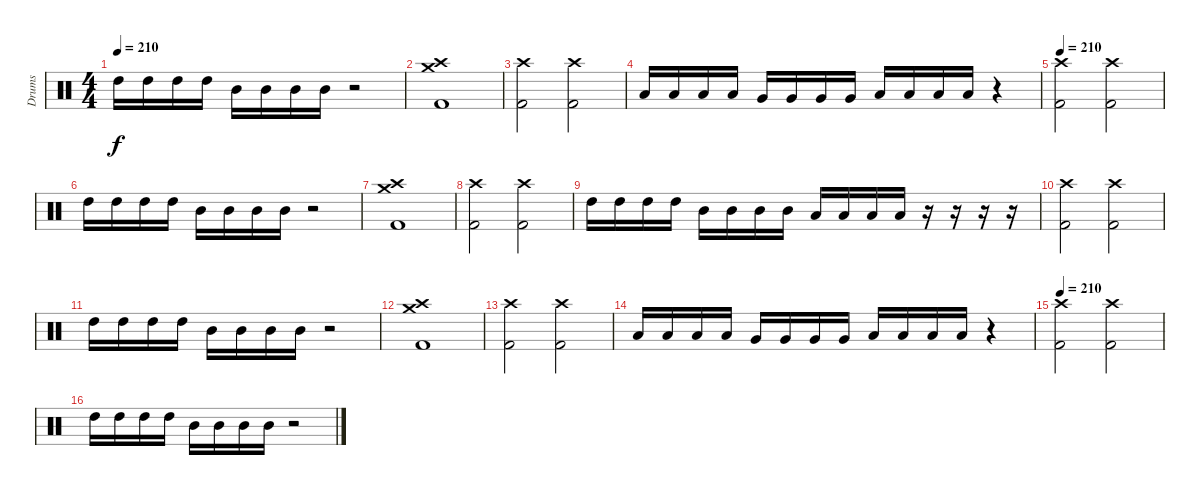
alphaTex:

\track ("Drums" "Drums") {instrument percussion}
\staff {score}
\articulation defaults
\ts (4 4)
\tempo 210
\clef neutral
\ks c "High Tom (hit)".16{dy f} "High Tom (hit)".16 "High Tom (hit)".16 "High Tom (hit)".16 "Mid Tom (hit)".16 "Mid Tom (hit)".16 "Mid Tom (hit)".16 "Mid Tom (hit)".16
r.2 |
("Crash high (hit)" "Crash medium (hit)" "Kick (hit) 2").1 |
("Crash high (hit)" "Kick (hit) 2").2 ("Crash high (hit)" "Kick (hit) 2").2 |
"Low Tom (hit)".16 "Low Tom (hit)".16 "Low Tom (hit)".16 "Low Tom (hit)".16 "Very Low Tom (hit)".16 "Very Low Tom (hit)".16 "Very Low Tom (hit)".16 "Very Low Tom (hit)".16 "Low Floor Tom (hit)".16 "Low Floor Tom (hit)".16 "Low Floor Tom (hit)".16 "Low Floor Tom (hit)".16 r.4 |
\tempo 210
("Crash high (hit)" "Kick (hit) 2").2 ("Crash high (hit)" "Kick (hit) 2").2 |
"High Tom (hit)".16 "High Tom (hit)".16 "High Tom (hit)".16 "High Tom (hit)".16 "Mid Tom (hit)".16 "Mid Tom (hit)".16 "Mid Tom (hit)".16 "Mid Tom (hit)".16 r.2 |
("Crash high (hit)" "Crash medium (hit)" "Kick (hit) 2").1 |
("Crash high (hit)" "Kick (hit) 2").2 ("Crash high (hit)" "Kick (hit) 2").2 |
"High Tom (hit)".16 "High Tom (hit)".16 "High Tom (hit)".16 "High Tom (hit)".16 "Mid Tom (hit)".16 "Mid Tom (hit)".16 "Mid Tom (hit)".16 "Mid Tom (hit)".16 "Low Tom (hit)".16 "Low Tom (hit)".16 "Low Tom (hit)".16 "Low Tom (hit)".16 r.16 r.16 r.16 r.16 |
("Crash high (hit)" "Kick (hit) 2").2 ("Crash high (hit)" "Kick (hit) 2").2 |
"High Tom (hit)".16 "High Tom (hit)".16 "High Tom (hit)".16 "High Tom (hit)".16 "Mid Tom (hit)".16 "Mid Tom (hit)".16 "Mid Tom (hit)".16 "Mid Tom (hit)".16 r.2 |
("Crash high (hit)" "Crash medium (hit)" "Kick (hit) 2").1 |
("Crash high (hit)" "Kick (hit) 2").2 ("Crash high (hit)" "Kick (hit) 2").2 |
"Low Tom (hit)".16 "Low Tom (hit)".16 "Low Tom (hit)".16 "Low Tom (hit)".16 "Very Low Tom (hit)".16 "Very Low Tom (hit)".16 "Very Low Tom (hit)".16 "Very Low Tom (hit)".16 "Low Floor Tom (hit)".16 "Low Floor Tom (hit)".16 "Low Floor Tom (hit)".16 "Low Floor Tom (hit)".16 r.4 |
\tempo 210
("Crash high (hit)" "Kick (hit) 2").2 ("Crash high (hit)" "Kick (hit) 2").2 |
"High Tom (hit)".16 "High Tom (hit)".16 "High Tom (hit)".16 "High Tom (hit)".16 "Mid Tom (hit)".16 "Mid Tom (hit)".16 "Mid Tom (hit)".16 "Mid Tom (hit)".16 r.2
